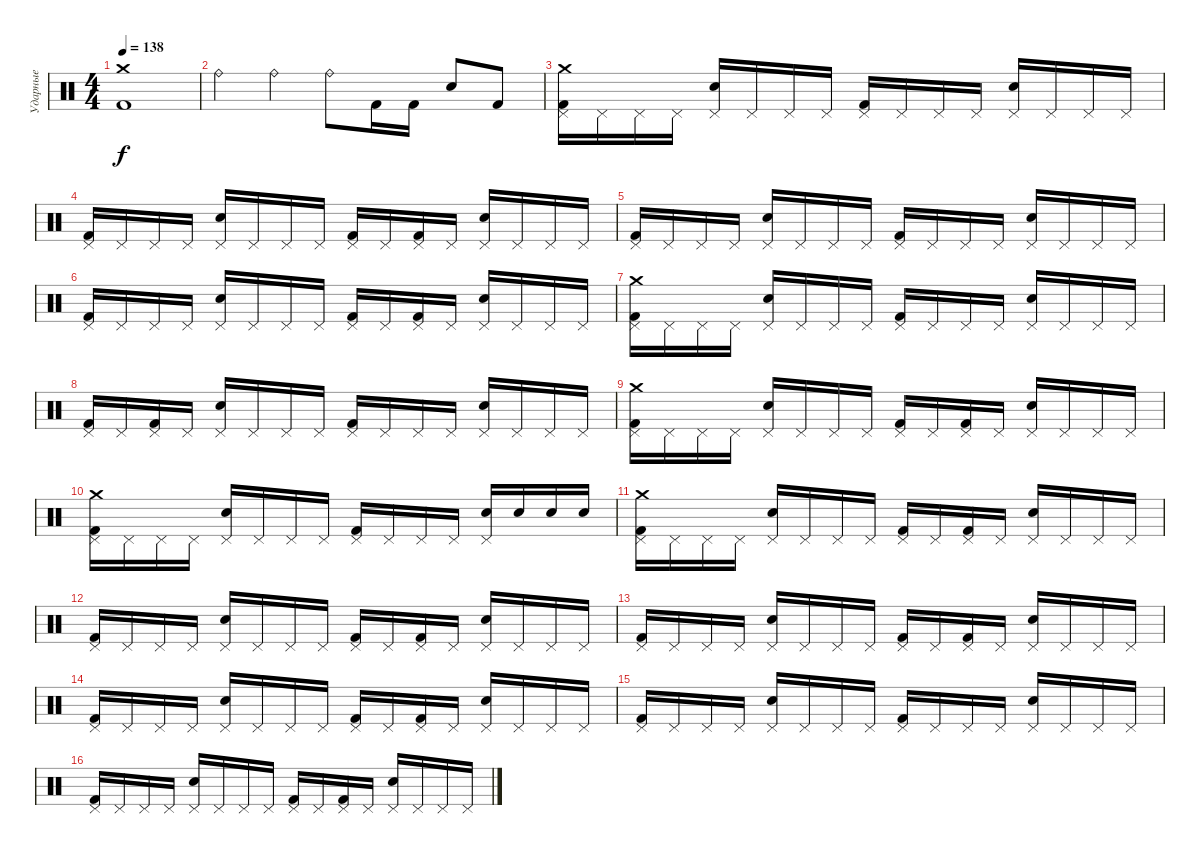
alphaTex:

\track ("Ударные" "Ударные") {instrument percussion}
\staff {score}
\articulation defaults
\ts (4 4)
\tempo 138
\clef neutral
\ks c
("Crash medium (hit)" "Kick (hit) 2").1{dy f} |
"Ride (bell)".4 "Ride (bell)".4 "Ride (bell)".8 "Kick (hit) 2".16 "Kick (hit) 2".16 "Electric Snare (hit)".8 "Kick (hit) 2".8 |
("Crash medium (hit)" "Pedal Hi-Hat (hit)" "Kick (hit) 2").16 "Pedal Hi-Hat (hit)".16 "Pedal Hi-Hat (hit)".16 "Pedal Hi-Hat (hit)".16 ("Pedal Hi-Hat (hit)" "Electric Snare (hit)").16 "Pedal Hi-Hat (hit)".16 "Pedal Hi-Hat (hit)".16 "Pedal Hi-Hat (hit)".16 ("Pedal Hi-Hat (hit)" "Kick (hit) 2").16 "Pedal Hi-Hat (hit)".16 "Pedal Hi-Hat (hit)".16 "Pedal Hi-Hat (hit)".16 ("Pedal Hi-Hat (hit)" "Electric Snare (hit)").16 "Pedal Hi-Hat (hit)".16 "Pedal Hi-Hat (hit)".16 "Pedal Hi-Hat (hit)".16 |
("Pedal Hi-Hat (hit)" "Kick (hit) 2").16 "Pedal Hi-Hat (hit)".16 "Pedal Hi-Hat (hit)".16 "Pedal Hi-Hat (hit)".16 ("Pedal Hi-Hat (hit)" "Electric Snare (hit)").16 "Pedal Hi-Hat (hit)".16 "Pedal Hi-Hat (hit)".16 "Pedal Hi-Hat (hit)".16 ("Pedal Hi-Hat (hit)" "Kick (hit) 2").16 "Pedal Hi-Hat (hit)".16 ("Pedal Hi-Hat (hit)" "Kick (hit) 2").16 "Pedal Hi-Hat (hit)".16 ("Pedal Hi-Hat (hit)" "Electric Snare (hit)").16 "Pedal Hi-Hat (hit)".16 "Pedal Hi-Hat (hit)".16 "Pedal Hi-Hat (hit)".16 |
("Pedal Hi-Hat (hit)" "Kick (hit) 2").16 "Pedal Hi-Hat (hit)".16 "Pedal Hi-Hat (hit)".16 "Pedal Hi-Hat (hit)".16 ("Pedal Hi-Hat (hit)" "Electric Snare (hit)").16 "Pedal Hi-Hat (hit)".16 "Pedal Hi-Hat (hit)".16 "Pedal Hi-Hat (hit)".16 ("Pedal Hi-Hat (hit)" "Kick (hit) 2").16 "Pedal Hi-Hat (hit)".16 "Pedal Hi-Hat (hit)".16 "Pedal Hi-Hat (hit)".16 ("Pedal Hi-Hat (hit)" "Electric Snare (hit)").16 "Pedal Hi-Hat (hit)".16 "Pedal Hi-Hat (hit)".16 "Pedal Hi-Hat (hit)".16 |
("Pedal Hi-Hat (hit)" "Kick (hit) 2").16 "Pedal Hi-Hat (hit)".16 "Pedal Hi-Hat (hit)".16 "Pedal Hi-Hat (hit)".16 ("Pedal Hi-Hat (hit)" "Electric Snare (hit)").16 "Pedal Hi-Hat (hit)".16 "Pedal Hi-Hat (hit)".16 "Pedal Hi-Hat (hit)".16 ("Pedal Hi-Hat (hit)" "Kick (hit) 2").16 "Pedal Hi-Hat (hit)".16 ("Pedal Hi-Hat (hit)" "Kick (hit) 2").16 "Pedal Hi-Hat (hit)".16 ("Pedal Hi-Hat (hit)" "Electric Snare (hit)").16 "Pedal Hi-Hat (hit)".16 "Pedal Hi-Hat (hit)".16 "Pedal Hi-Hat (hit)".16 |
("Crash medium (hit)" "Pedal Hi-Hat (hit)" "Kick (hit) 2").16 "Pedal Hi-Hat (hit)".16 "Pedal Hi-Hat (hit)".16 "Pedal Hi-Hat (hit)".16 ("Pedal Hi-Hat (hit)" "Electric Snare (hit)").16 "Pedal Hi-Hat (hit)".16 "Pedal Hi-Hat (hit)".16 "Pedal Hi-Hat (hit)".16 ("Pedal Hi-Hat (hit)" "Kick (hit) 2").16 "Pedal Hi-Hat (hit)".16 "Pedal Hi-Hat (hit)".16 "Pedal Hi-Hat (hit)".16 ("Pedal Hi-Hat (hit)" "Electric Snare (hit)").16 "Pedal Hi-Hat (hit)".16 "Pedal Hi-Hat (hit)".16 "Pedal Hi-Hat (hit)".16 |
("Pedal Hi-Hat (hit)" "Kick (hit) 2").16 "Pedal Hi-Hat (hit)".16 ("Pedal Hi-Hat (hit)" "Kick (hit) 2").16 "Pedal Hi-Hat (hit)".16 ("Pedal Hi-Hat (hit)" "Electric Snare (hit)").16 "Pedal Hi-Hat (hit)".16 "Pedal Hi-Hat (hit)".16 "Pedal Hi-Hat (hit)".16 ("Pedal Hi-Hat (hit)" "Kick (hit) 2").16 "Pedal Hi-Hat (hit)".16 "Pedal Hi-Hat (hit)".16 "Pedal Hi-Hat (hit)".16 ("Pedal Hi-Hat (hit)" "Electric Snare (hit)").16 "Pedal Hi-Hat (hit)".16 "Pedal Hi-Hat (hit)".16 "Pedal Hi-Hat (hit)".16 |
("Crash medium (hit)" "Pedal Hi-Hat (hit)" "Kick (hit) 2").16 "Pedal Hi-Hat (hit)".16 "Pedal Hi-Hat (hit)".16 "Pedal Hi-Hat (hit)".16 ("Pedal Hi-Hat (hit)" "Electric Snare (hit)").16 "Pedal Hi-Hat (hit)".16 "Pedal Hi-Hat (hit)".16 "Pedal Hi-Hat (hit)".16 ("Pedal Hi-Hat (hit)" "Kick (hit) 2").16 "Pedal Hi-Hat (hit)".16 ("Pedal Hi-Hat (hit)" "Kick (hit) 2").16 "Pedal Hi-Hat (hit)".16 ("Pedal Hi-Hat (hit)" "Electric Snare (hit)").16 "Pedal Hi-Hat (hit)".16 "Pedal Hi-Hat (hit)".16 "Pedal Hi-Hat (hit)".16 |
("Crash medium (hit)" "Pedal Hi-Hat (hit)" "Kick (hit) 2").16 "Pedal Hi-Hat (hit)".16 "Pedal Hi-Hat (hit)".16 "Pedal Hi-Hat (hit)".16 ("Pedal Hi-Hat (hit)" "Electric Snare (hit)").16 "Pedal Hi-Hat (hit)".16 "Pedal Hi-Hat (hit)".16 "Pedal Hi-Hat (hit)".16 ("Pedal Hi-Hat (hit)" "Kick (hit) 2").16 "Pedal Hi-Hat (hit)".16 "Pedal Hi-Hat (hit)".16 "Pedal Hi-Hat (hit)".16 ("Pedal Hi-Hat (hit)" "Electric Snare (hit)").16 "Electric Snare (hit)".16 "Electric Snare (hit)".16 "Electric Snare (hit)".16 |
("Crash medium (hit)" "Pedal Hi-Hat (hit)" "Kick (hit) 2").16 "Pedal Hi-Hat (hit)".16 "Pedal Hi-Hat (hit)".16 "Pedal Hi-Hat (hit)".16 ("Pedal Hi-Hat (hit)" "Electric Snare (hit)").16 "Pedal Hi-Hat (hit)".16 "Pedal Hi-Hat (hit)".16 "Pedal Hi-Hat (hit)".16 ("Pedal Hi-Hat (hit)" "Kick (hit) 2").16 "Pedal Hi-Hat (hit)".16 ("Pedal Hi-Hat (hit)" "Kick (hit) 2").16 "Pedal Hi-Hat (hit)".16 ("Pedal Hi-Hat (hit)" "Electric Snare (hit)").16 "Pedal Hi-Hat (hit)".16 "Pedal Hi-Hat (hit)".16 "Pedal Hi-Hat (hit)".16 |
("Pedal Hi-Hat (hit)" "Kick (hit) 2").16 "Pedal Hi-Hat (hit)".16 "Pedal Hi-Hat (hit)".16 "Pedal Hi-Hat (hit)".16 ("Pedal Hi-Hat (hit)" "Electric Snare (hit)").16 "Pedal Hi-Hat (hit)".16 "Pedal Hi-Hat (hit)".16 "Pedal Hi-Hat (hit)".16 ("Pedal Hi-Hat (hit)" "Kick (hit) 2").16 "Pedal Hi-Hat (hit)".16 ("Pedal Hi-Hat (hit)" "Kick (hit) 2").16 "Pedal Hi-Hat (hit)".16 ("Pedal Hi-Hat (hit)" "Electric Snare (hit)").16 "Pedal Hi-Hat (hit)".16 "Pedal Hi-Hat (hit)".16 "Pedal Hi-Hat (hit)".16 |
("Pedal Hi-Hat (hit)" "Kick (hit) 2").16 "Pedal Hi-Hat (hit)".16 "Pedal Hi-Hat (hit)".16 "Pedal Hi-Hat (hit)".16 ("Pedal Hi-Hat (hit)" "Electric Snare (hit)").16 "Pedal Hi-Hat (hit)".16 "Pedal Hi-Hat (hit)".16 "Pedal Hi-Hat (hit)".16 ("Pedal Hi-Hat (hit)" "Kick (hit) 2").16 "Pedal Hi-Hat (hit)".16 ("Pedal Hi-Hat (hit)" "Kick (hit) 2").16 "Pedal Hi-Hat (hit)".16 ("Pedal Hi-Hat (hit)" "Electric Snare (hit)").16 "Pedal Hi-Hat (hit)".16 "Pedal Hi-Hat (hit)".16 "Pedal Hi-Hat (hit)".16 |
("Pedal Hi-Hat (hit)" "Kick (hit) 2").16 "Pedal Hi-Hat (hit)".16 "Pedal Hi-Hat (hit)".16 "Pedal Hi-Hat (hit)".16 ("Pedal Hi-Hat (hit)" "Electric Snare (hit)").16 "Pedal Hi-Hat (hit)".16 "Pedal Hi-Hat (hit)".16 "Pedal Hi-Hat (hit)".16 ("Pedal Hi-Hat (hit)" "Kick (hit) 2").16 "Pedal Hi-Hat (hit)".16 ("Pedal Hi-Hat (hit)" "Kick (hit) 2").16 "Pedal Hi-Hat (hit)".16 ("Pedal Hi-Hat (hit)" "Electric Snare (hit)").16 "Pedal Hi-Hat (hit)".16 "Pedal Hi-Hat (hit)".16 "Pedal Hi-Hat (hit)".16 |
("Pedal Hi-Hat (hit)" "Kick (hit) 2").16 "Pedal Hi-Hat (hit)".16 "Pedal Hi-Hat (hit)".16 "Pedal Hi-Hat (hit)".16 ("Pedal Hi-Hat (hit)" "Electric Snare (hit)").16 "Pedal Hi-Hat (hit)".16 "Pedal Hi-Hat (hit)".16 "Pedal Hi-Hat (hit)".16 ("Pedal Hi-Hat (hit)" "Kick (hit) 2").16 "Pedal Hi-Hat (hit)".16 "Pedal Hi-Hat (hit)".16 "Pedal Hi-Hat (hit)".16 ("Pedal Hi-Hat (hit)" "Electric Snare (hit)").16 "Pedal Hi-Hat (hit)".16 "Pedal Hi-Hat (hit)".16 "Pedal Hi-Hat (hit)".16 |
("Pedal Hi-Hat (hit)" "Kick (hit) 2").16 "Pedal Hi-Hat (hit)".16 "Pedal Hi-Hat (hit)".16 "Pedal Hi-Hat (hit)".16 ("Pedal Hi-Hat (hit)" "Electric Snare (hit)").16 "Pedal Hi-Hat (hit)".16 "Pedal Hi-Hat (hit)".16 "Pedal Hi-Hat (hit)".16 ("Pedal Hi-Hat (hit)" "Kick (hit) 2").16 "Pedal Hi-Hat (hit)".16 ("Pedal Hi-Hat (hit)" "Kick (hit) 2").16 "Pedal Hi-Hat (hit)".16 ("Pedal Hi-Hat (hit)" "Electric Snare (hit)").16 "Pedal Hi-Hat (hit)".16 "Pedal Hi-Hat (hit)".16 "Pedal Hi-Hat (hit)".16
